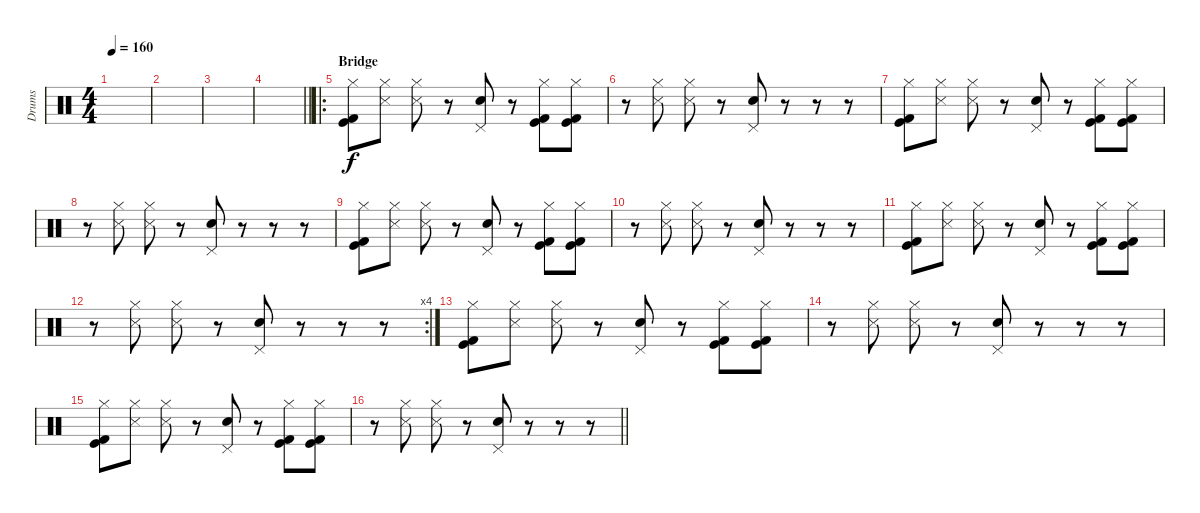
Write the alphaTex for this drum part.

\track ("Drums" "Drums") {instrument percussion}
\staff {score}
\articulation defaults
\ts (4 4)
\tempo 160
\clef neutral
\ks c
|
|
|
\barLineRight lightlight
|
\ro
\section ("" "Bridge")
("Kick (hit)" "Kick (hit) 2" "Hi-Hat (closed)").8 ("Metronome (hit)" "Hi-Hat (closed)").8 ("Metronome (hit)" "Hi-Hat (closed)").8 r.8 ("Pedal Hi-Hat (hit)" "Electric Snare (hit)").8 r.8 ("Kick (hit)" "Kick (hit) 2" "Hi-Hat (closed)").8 ("Kick (hit)" "Kick (hit) 2" "Hi-Hat (closed)").8 |
r.8 ("Metronome (hit)" "Hi-Hat (closed)").8 ("Metronome (hit)" "Hi-Hat (closed)").8 r.8 ("Pedal Hi-Hat (hit)" "Electric Snare (hit)").8 r.8 r.8 r.8 |
("Kick (hit)" "Kick (hit) 2" "Hi-Hat (closed)").8 ("Metronome (hit)" "Hi-Hat (closed)").8 ("Metronome (hit)" "Hi-Hat (closed)").8 r.8 ("Pedal Hi-Hat (hit)" "Electric Snare (hit)").8 r.8 ("Kick (hit)" "Kick (hit) 2" "Hi-Hat (closed)").8 ("Kick (hit)" "Kick (hit) 2" "Hi-Hat (closed)").8 |
r.8 ("Metronome (hit)" "Hi-Hat (closed)").8 ("Metronome (hit)" "Hi-Hat (closed)").8 r.8 ("Pedal Hi-Hat (hit)" "Electric Snare (hit)").8 r.8 r.8 r.8 |
("Kick (hit)" "Kick (hit) 2" "Hi-Hat (closed)").8 ("Metronome (hit)" "Hi-Hat (closed)").8 ("Metronome (hit)" "Hi-Hat (closed)").8 r.8 ("Pedal Hi-Hat (hit)" "Electric Snare (hit)").8 r.8 ("Kick (hit)" "Kick (hit) 2" "Hi-Hat (closed)").8 ("Kick (hit)" "Kick (hit) 2" "Hi-Hat (closed)").8 |
r.8 ("Metronome (hit)" "Hi-Hat (closed)").8 ("Metronome (hit)" "Hi-Hat (closed)").8 r.8 ("Pedal Hi-Hat (hit)" "Electric Snare (hit)").8 r.8 r.8 r.8 |
("Kick (hit)" "Kick (hit) 2" "Hi-Hat (closed)").8 ("Metronome (hit)" "Hi-Hat (closed)").8 ("Metronome (hit)" "Hi-Hat (closed)").8 r.8 ("Pedal Hi-Hat (hit)" "Electric Snare (hit)").8 r.8 ("Kick (hit)" "Kick (hit) 2" "Hi-Hat (closed)").8 ("Kick (hit)" "Kick (hit) 2" "Hi-Hat (closed)").8 |
\rc 4
r.8 ("Metronome (hit)" "Hi-Hat (closed)").8 ("Metronome (hit)" "Hi-Hat (closed)").8 r.8 ("Pedal Hi-Hat (hit)" "Electric Snare (hit)").8 r.8 r.8 r.8 |
("Kick (hit)" "Kick (hit) 2" "Hi-Hat (closed)").8 ("Metronome (hit)" "Hi-Hat (closed)").8 ("Metronome (hit)" "Hi-Hat (closed)").8 r.8 ("Pedal Hi-Hat (hit)" "Electric Snare (hit)").8 r.8 ("Kick (hit)" "Kick (hit) 2" "Hi-Hat (closed)").8 ("Kick (hit)" "Kick (hit) 2" "Hi-Hat (closed)").8 |
r.8 ("Metronome (hit)" "Hi-Hat (closed)").8 ("Metronome (hit)" "Hi-Hat (closed)").8 r.8 ("Pedal Hi-Hat (hit)" "Electric Snare (hit)").8 r.8 r.8 r.8 |
("Kick (hit)" "Kick (hit) 2" "Hi-Hat (closed)").8 ("Metronome (hit)" "Hi-Hat (closed)").8 ("Metronome (hit)" "Hi-Hat (closed)").8 r.8 ("Pedal Hi-Hat (hit)" "Electric Snare (hit)").8 r.8 ("Kick (hit)" "Kick (hit) 2" "Hi-Hat (closed)").8 ("Kick (hit)" "Kick (hit) 2" "Hi-Hat (closed)").8 |
\barLineRight lightlight
r.8 ("Metronome (hit)" "Hi-Hat (closed)").8 ("Metronome (hit)" "Hi-Hat (closed)").8 r.8 ("Pedal Hi-Hat (hit)" "Electric Snare (hit)").8 r.8 r.8 r.8
